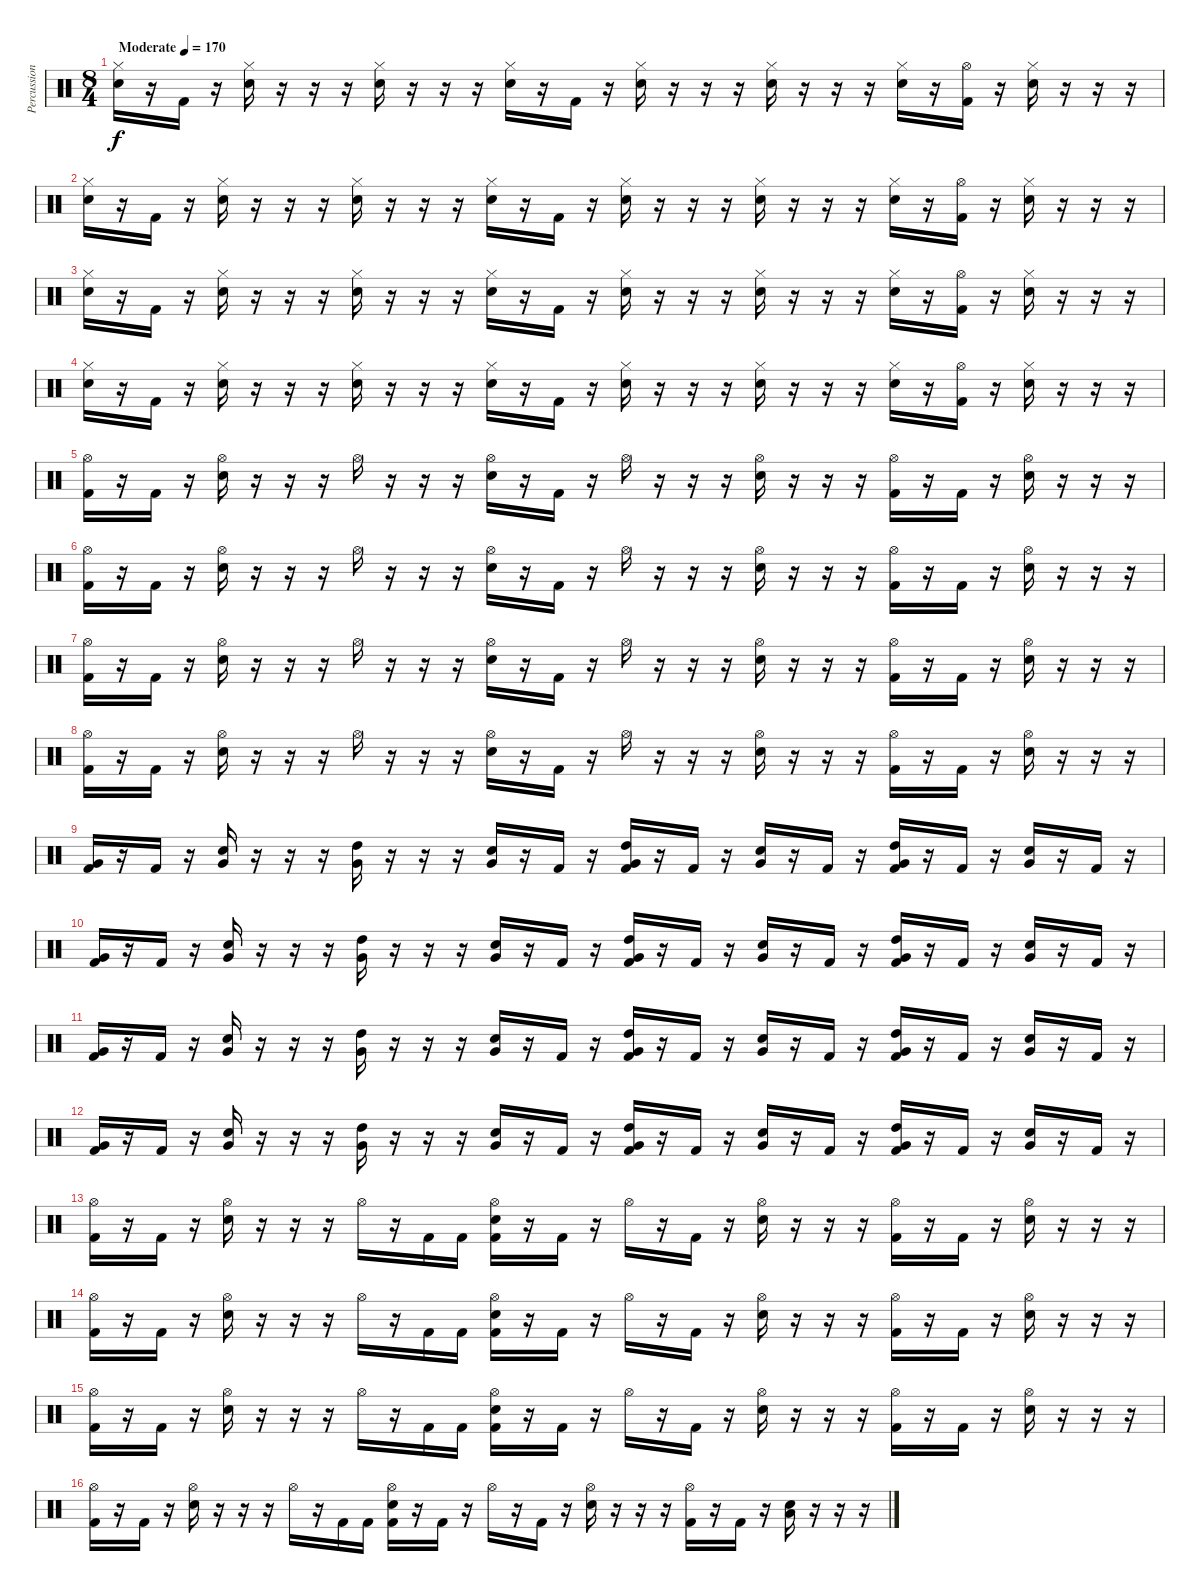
\track ("Percussion" "Percussion") {instrument percussion}
\staff {score}
\articulation defaults
\ts (8 4)
\tempo (170 "Moderate")
\clef neutral
\ks c
("Snare (hit) 2" "Hi-Hat (closed)").16{dy f} r.16 "Kick (hit) 2".16 r.16 ("Snare (hit) 2" "Hi-Hat (closed)").16 r.16 r.16 r.16 ("Snare (hit) 2" "Hi-Hat (closed)").16 r.16 r.16 r.16 ("Snare (hit) 2" "Hi-Hat (closed)").16 r.16 "Kick (hit) 2".16 r.16 ("Snare (hit) 2" "Hi-Hat (closed)").16 r.16 r.16 r.16 ("Snare (hit) 2" "Hi-Hat (closed)").16 r.16 r.16 r.16 ("Snare (hit) 2" "Hi-Hat (closed)").16 r.16 ("Kick (hit) 2" "Hi-Hat (open)").16 r.16 ("Snare (hit) 2" "Hi-Hat (closed)").16 r.16 r.16 r.16 |
("Snare (hit) 2" "Hi-Hat (closed)").16 r.16 "Kick (hit) 2".16 r.16 ("Snare (hit) 2" "Hi-Hat (closed)").16 r.16 r.16 r.16 ("Snare (hit) 2" "Hi-Hat (closed)").16 r.16 r.16 r.16 ("Snare (hit) 2" "Hi-Hat (closed)").16 r.16 "Kick (hit) 2".16 r.16 ("Snare (hit) 2" "Hi-Hat (closed)").16 r.16 r.16 r.16 ("Snare (hit) 2" "Hi-Hat (closed)").16 r.16 r.16 r.16 ("Snare (hit) 2" "Hi-Hat (closed)").16 r.16 ("Kick (hit) 2" "Hi-Hat (open)").16 r.16 ("Snare (hit) 2" "Hi-Hat (closed)").16 r.16 r.16 r.16 |
("Snare (hit) 2" "Hi-Hat (closed)").16 r.16 "Kick (hit) 2".16 r.16 ("Snare (hit) 2" "Hi-Hat (closed)").16 r.16 r.16 r.16 ("Snare (hit) 2" "Hi-Hat (closed)").16 r.16 r.16 r.16 ("Snare (hit) 2" "Hi-Hat (closed)").16 r.16 "Kick (hit) 2".16 r.16 ("Snare (hit) 2" "Hi-Hat (closed)").16 r.16 r.16 r.16 ("Snare (hit) 2" "Hi-Hat (closed)").16 r.16 r.16 r.16 ("Snare (hit) 2" "Hi-Hat (closed)").16 r.16 ("Kick (hit) 2" "Hi-Hat (open)").16 r.16 ("Snare (hit) 2" "Hi-Hat (closed)").16 r.16 r.16 r.16 |
("Snare (hit) 2" "Hi-Hat (closed)").16 r.16 "Kick (hit) 2".16 r.16 ("Snare (hit) 2" "Hi-Hat (closed)").16 r.16 r.16 r.16 ("Snare (hit) 2" "Hi-Hat (closed)").16 r.16 r.16 r.16 ("Snare (hit) 2" "Hi-Hat (closed)").16 r.16 "Kick (hit) 2".16 r.16 ("Snare (hit) 2" "Hi-Hat (closed)").16 r.16 r.16 r.16 ("Snare (hit) 2" "Hi-Hat (closed)").16 r.16 r.16 r.16 ("Snare (hit) 2" "Hi-Hat (closed)").16 r.16 ("Kick (hit) 2" "Hi-Hat (open)").16 r.16 ("Snare (hit) 2" "Hi-Hat (closed)").16 r.16 r.16 r.16 |
("Kick (hit) 2" "Hi-Hat (open)").16 r.16 "Kick (hit) 2".16 r.16 ("Snare (hit) 2" "Hi-Hat (open)").16 r.16 r.16 r.16 "Hi-Hat (open)".16 r.16 r.16 r.16 ("Snare (hit) 2" "Hi-Hat (open)").16 r.16 "Kick (hit) 2".16 r.16 "Hi-Hat (open)".16 r.16 r.16 r.16 ("Snare (hit) 2" "Hi-Hat (open)").16 r.16 r.16 r.16 ("Kick (hit) 2" "Hi-Hat (open)").16 r.16 "Kick (hit) 2".16 r.16 ("Snare (hit) 2" "Hi-Hat (open)").16 r.16 r.16 r.16 |
("Kick (hit) 2" "Hi-Hat (open)").16 r.16 "Kick (hit) 2".16 r.16 ("Snare (hit) 2" "Hi-Hat (open)").16 r.16 r.16 r.16 "Hi-Hat (open)".16 r.16 r.16 r.16 ("Snare (hit) 2" "Hi-Hat (open)").16 r.16 "Kick (hit) 2".16 r.16 "Hi-Hat (open)".16 r.16 r.16 r.16 ("Snare (hit) 2" "Hi-Hat (open)").16 r.16 r.16 r.16 ("Kick (hit) 2" "Hi-Hat (open)").16 r.16 "Kick (hit) 2".16 r.16 ("Snare (hit) 2" "Hi-Hat (open)").16 r.16 r.16 r.16 |
("Kick (hit) 2" "Hi-Hat (open)").16 r.16 "Kick (hit) 2".16 r.16 ("Snare (hit) 2" "Hi-Hat (open)").16 r.16 r.16 r.16 "Hi-Hat (open)".16 r.16 r.16 r.16 ("Snare (hit) 2" "Hi-Hat (open)").16 r.16 "Kick (hit) 2".16 r.16 "Hi-Hat (open)".16 r.16 r.16 r.16 ("Snare (hit) 2" "Hi-Hat (open)").16 r.16 r.16 r.16 ("Kick (hit) 2" "Hi-Hat (open)").16 r.16 "Kick (hit) 2".16 r.16 ("Snare (hit) 2" "Hi-Hat (open)").16 r.16 r.16 r.16 |
("Kick (hit) 2" "Hi-Hat (open)").16 r.16 "Kick (hit) 2".16 r.16 ("Snare (hit) 2" "Hi-Hat (open)").16 r.16 r.16 r.16 "Hi-Hat (open)".16 r.16 r.16 r.16 ("Snare (hit) 2" "Hi-Hat (open)").16 r.16 "Kick (hit) 2".16 r.16 "Hi-Hat (open)".16 r.16 r.16 r.16 ("Snare (hit) 2" "Hi-Hat (open)").16 r.16 r.16 r.16 ("Kick (hit) 2" "Hi-Hat (open)").16 r.16 "Kick (hit) 2".16 r.16 ("Snare (hit) 2" "Hi-Hat (open)").16 r.16 r.16 r.16 |
("Kick (hit) 2" "Very Low Tom (hit)").16 r.16 "Kick (hit) 2".16 r.16 ("Very Low Tom (hit)" "Snare (hit) 2").16 r.16 r.16 r.16 ("Very Low Tom (hit)" "High Tom (hit)").16 r.16 r.16 r.16 ("Very Low Tom (hit)" "Snare (hit) 2").16 r.16 "Kick (hit) 2".16 r.16 ("Kick (hit) 2" "Very Low Tom (hit)" "High Tom (hit)").16 r.16 "Kick (hit) 2".16 r.16 ("Very Low Tom (hit)" "Snare (hit) 2").16 r.16 "Kick (hit) 2".16 r.16 ("Kick (hit) 2" "Very Low Tom (hit)" "High Tom (hit)").16 r.16 "Kick (hit) 2".16 r.16 ("Very Low Tom (hit)" "Snare (hit) 2").16 r.16 "Kick (hit) 2".16 r.16 |
("Kick (hit) 2" "Very Low Tom (hit)").16 r.16 "Kick (hit) 2".16 r.16 ("Very Low Tom (hit)" "Snare (hit) 2").16 r.16 r.16 r.16 ("Very Low Tom (hit)" "High Tom (hit)").16 r.16 r.16 r.16 ("Very Low Tom (hit)" "Snare (hit) 2").16 r.16 "Kick (hit) 2".16 r.16 ("Kick (hit) 2" "Very Low Tom (hit)" "High Tom (hit)").16 r.16 "Kick (hit) 2".16 r.16 ("Very Low Tom (hit)" "Snare (hit) 2").16 r.16 "Kick (hit) 2".16 r.16 ("Kick (hit) 2" "Very Low Tom (hit)" "High Tom (hit)").16 r.16 "Kick (hit) 2".16 r.16 ("Very Low Tom (hit)" "Snare (hit) 2").16 r.16 "Kick (hit) 2".16 r.16 |
("Kick (hit) 2" "Very Low Tom (hit)").16 r.16 "Kick (hit) 2".16 r.16 ("Very Low Tom (hit)" "Snare (hit) 2").16 r.16 r.16 r.16 ("Very Low Tom (hit)" "High Tom (hit)").16 r.16 r.16 r.16 ("Very Low Tom (hit)" "Snare (hit) 2").16 r.16 "Kick (hit) 2".16 r.16 ("Kick (hit) 2" "Very Low Tom (hit)" "High Tom (hit)").16 r.16 "Kick (hit) 2".16 r.16 ("Very Low Tom (hit)" "Snare (hit) 2").16 r.16 "Kick (hit) 2".16 r.16 ("Kick (hit) 2" "Very Low Tom (hit)" "High Tom (hit)").16 r.16 "Kick (hit) 2".16 r.16 ("Very Low Tom (hit)" "Snare (hit) 2").16 r.16 "Kick (hit) 2".16 r.16 |
("Kick (hit) 2" "Very Low Tom (hit)").16 r.16 "Kick (hit) 2".16 r.16 ("Very Low Tom (hit)" "Snare (hit) 2").16 r.16 r.16 r.16 ("Very Low Tom (hit)" "High Tom (hit)").16 r.16 r.16 r.16 ("Very Low Tom (hit)" "Snare (hit) 2").16 r.16 "Kick (hit) 2".16 r.16 ("Kick (hit) 2" "Very Low Tom (hit)" "High Tom (hit)").16 r.16 "Kick (hit) 2".16 r.16 ("Very Low Tom (hit)" "Snare (hit) 2").16 r.16 "Kick (hit) 2".16 r.16 ("Kick (hit) 2" "Very Low Tom (hit)" "High Tom (hit)").16 r.16 "Kick (hit) 2".16 r.16 ("Very Low Tom (hit)" "Snare (hit) 2").16 r.16 "Kick (hit) 2".16 r.16 |
("Kick (hit) 2" "Hi-Hat (open)").16 r.16 "Kick (hit) 2".16 r.16 ("Snare (hit) 2" "Hi-Hat (open)").16 r.16 r.16 r.16 "Hi-Hat (open)".16 r.16 "Kick (hit) 2".16 "Kick (hit) 2".16 ("Kick (hit) 2" "Snare (hit) 2" "Hi-Hat (open)").16 r.16 "Kick (hit) 2".16 r.16 "Hi-Hat (open)".16 r.16 "Kick (hit) 2".16 r.16 ("Snare (hit) 2" "Hi-Hat (open)").16 r.16 r.16 r.16 ("Kick (hit) 2" "Hi-Hat (open)").16 r.16 "Kick (hit) 2".16 r.16 ("Snare (hit) 2" "Hi-Hat (open)").16 r.16 r.16 r.16 |
("Kick (hit) 2" "Hi-Hat (open)").16 r.16 "Kick (hit) 2".16 r.16 ("Snare (hit) 2" "Hi-Hat (open)").16 r.16 r.16 r.16 "Hi-Hat (open)".16 r.16 "Kick (hit) 2".16 "Kick (hit) 2".16 ("Kick (hit) 2" "Snare (hit) 2" "Hi-Hat (open)").16 r.16 "Kick (hit) 2".16 r.16 "Hi-Hat (open)".16 r.16 "Kick (hit) 2".16 r.16 ("Snare (hit) 2" "Hi-Hat (open)").16 r.16 r.16 r.16 ("Kick (hit) 2" "Hi-Hat (open)").16 r.16 "Kick (hit) 2".16 r.16 ("Snare (hit) 2" "Hi-Hat (open)").16 r.16 r.16 r.16 |
("Kick (hit) 2" "Hi-Hat (open)").16 r.16 "Kick (hit) 2".16 r.16 ("Snare (hit) 2" "Hi-Hat (open)").16 r.16 r.16 r.16 "Hi-Hat (open)".16 r.16 "Kick (hit) 2".16 "Kick (hit) 2".16 ("Kick (hit) 2" "Snare (hit) 2" "Hi-Hat (open)").16 r.16 "Kick (hit) 2".16 r.16 "Hi-Hat (open)".16 r.16 "Kick (hit) 2".16 r.16 ("Snare (hit) 2" "Hi-Hat (open)").16 r.16 r.16 r.16 ("Kick (hit) 2" "Hi-Hat (open)").16 r.16 "Kick (hit) 2".16 r.16 ("Snare (hit) 2" "Hi-Hat (open)").16 r.16 r.16 r.16 |
("Kick (hit) 2" "Hi-Hat (open)").16 r.16 "Kick (hit) 2".16 r.16 ("Snare (hit) 2" "Hi-Hat (open)").16 r.16 r.16 r.16 "Hi-Hat (open)".16 r.16 "Kick (hit) 2".16 "Kick (hit) 2".16 ("Kick (hit) 2" "Snare (hit) 2" "Hi-Hat (open)").16 r.16 "Kick (hit) 2".16 r.16 "Hi-Hat (open)".16 r.16 "Kick (hit) 2".16 r.16 ("Snare (hit) 2" "Hi-Hat (open)").16 r.16 r.16 r.16 ("Kick (hit) 2" "Hi-Hat (open)").16 r.16 "Kick (hit) 2".16 r.16 ("Low Tom (hit)" "Snare (hit) 2").16 r.16 r.16 r.16
